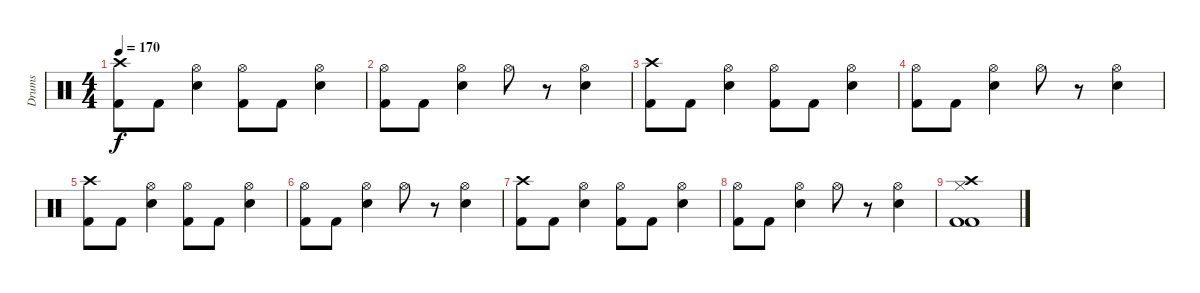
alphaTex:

\track ("Drums" "Drums") {instrument percussion}
\staff {score}
\articulation defaults
\ts (4 4)
\tempo 170
\clef neutral
\ks c
("Crash high (hit)" "Kick (hit) 2").8{dy f} "Kick (hit) 2".8 ("Hi-Hat (open)" "Snare (hit) 2").4 ("Hi-Hat (open)" "Kick (hit) 2").8 "Kick (hit) 2".8 ("Hi-Hat (open)" "Snare (hit) 2").4 |
("Hi-Hat (open)" "Kick (hit) 2").8 "Kick (hit) 2".8 ("Hi-Hat (open)" "Snare (hit) 2").4 "Hi-Hat (open)".8 r.8 ("Hi-Hat (open)" "Snare (hit) 2").4 |
("Crash high (hit)" "Kick (hit) 2").8 "Kick (hit) 2".8 ("Hi-Hat (open)" "Snare (hit) 2").4 ("Hi-Hat (open)" "Kick (hit) 2").8 "Kick (hit) 2".8 ("Hi-Hat (open)" "Snare (hit) 2").4 |
("Hi-Hat (open)" "Kick (hit) 2").8 "Kick (hit) 2".8 ("Hi-Hat (open)" "Snare (hit) 2").4 "Hi-Hat (open)".8 r.8 ("Hi-Hat (open)" "Snare (hit) 2").4 |
("Crash high (hit)" "Kick (hit) 2").8 "Kick (hit) 2".8 ("Hi-Hat (open)" "Snare (hit) 2").4 ("Hi-Hat (open)" "Kick (hit) 2").8 "Kick (hit) 2".8 ("Hi-Hat (open)" "Snare (hit) 2").4 |
("Hi-Hat (open)" "Kick (hit) 2").8 "Kick (hit) 2".8 ("Hi-Hat (open)" "Snare (hit) 2").4 "Hi-Hat (open)".8 r.8 ("Hi-Hat (open)" "Snare (hit) 2").4 |
("Crash high (hit)" "Kick (hit) 2").8 "Kick (hit) 2".8 ("Hi-Hat (open)" "Snare (hit) 2").4 ("Hi-Hat (open)" "Kick (hit) 2").8 "Kick (hit) 2".8 ("Hi-Hat (open)" "Snare (hit) 2").4 |
("Hi-Hat (open)" "Kick (hit) 2").8 "Kick (hit) 2".8 ("Hi-Hat (open)" "Snare (hit) 2").4 "Hi-Hat (open)".8 r.8 ("Hi-Hat (open)" "Snare (hit) 2").4 |
("Crash high (hit)" "Hi-Hat (closed)" "Kick (hit) 2" "Kick (hit) 2").1
